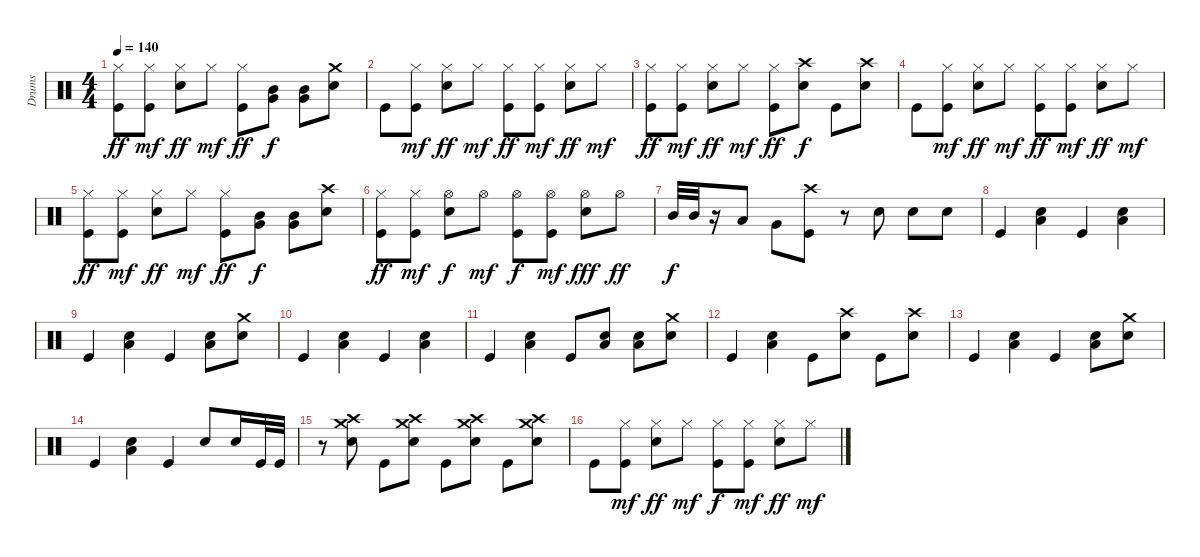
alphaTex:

\track ("Drums" "Drums") {instrument percussion}
\staff {score}
\articulation defaults
\ts (4 4)
\tempo 140
\clef neutral
\ks c
("Hi-Hat (closed)" "Kick (hit)").8{dy ff} ("Hi-Hat (closed)" "Kick (hit)").8{dy mf} ("Hi-Hat (closed)" "Snare (hit) 2").8{dy ff} "Hi-Hat (closed)".8{dy mf} ("Hi-Hat (closed)" "Kick (hit)").8{dy ff} ("Mid Tom (hit)" "Very Low Tom (hit)").8{dy f} ("Mid Tom (hit)" "Very Low Tom (hit)").8 ("Crash medium (hit)" "Snare (hit) 2").8 |
"Kick (hit)".8 ("Hi-Hat (closed)" "Kick (hit)").8{dy mf} ("Hi-Hat (closed)" "Snare (hit) 2").8{dy ff} "Hi-Hat (closed)".8{dy mf} ("Hi-Hat (closed)" "Kick (hit)").8{dy ff} ("Hi-Hat (closed)" "Kick (hit)").8{dy mf} ("Hi-Hat (closed)" "Snare (hit) 2").8{dy ff} "Hi-Hat (closed)".8{dy mf} |
("Hi-Hat (closed)" "Kick (hit)").8{dy ff} ("Hi-Hat (closed)" "Kick (hit)").8{dy mf} ("Hi-Hat (closed)" "Snare (hit) 2").8{dy ff} "Hi-Hat (closed)".8{dy mf} ("Hi-Hat (closed)" "Kick (hit)").8{dy ff} ("Crash high (hit)" "Snare (hit) 2").8{dy f} "Kick (hit)".8 ("Crash high (hit)" "Snare (hit) 2").8 |
"Kick (hit)".8 ("Hi-Hat (closed)" "Kick (hit)").8{dy mf} ("Hi-Hat (closed)" "Snare (hit) 2").8{dy ff} "Hi-Hat (closed)".8{dy mf} ("Hi-Hat (closed)" "Kick (hit)").8{dy ff} ("Hi-Hat (closed)" "Kick (hit)").8{dy mf} ("Hi-Hat (closed)" "Snare (hit) 2").8{dy ff} "Hi-Hat (closed)".8{dy mf} |
("Hi-Hat (closed)" "Kick (hit)").8{dy ff} ("Hi-Hat (closed)" "Kick (hit)").8{dy mf} ("Hi-Hat (closed)" "Snare (hit) 2").8{dy ff} "Hi-Hat (closed)".8{dy mf} ("Hi-Hat (closed)" "Kick (hit)").8{dy ff} ("Mid Tom (hit)" "Very Low Tom (hit)").8{dy f} ("Mid Tom (hit)" "Very Low Tom (hit)").8 ("Crash high (hit)" "Snare (hit) 2").8 |
("Hi-Hat (closed)" "Kick (hit)").8{dy ff} ("Hi-Hat (closed)" "Kick (hit)").8{dy mf} ("Hi-Hat (open)" "Snare (hit) 2").8{dy f} "Hi-Hat (open)".8{dy mf} ("Hi-Hat (open)" "Kick (hit)").8{dy f} ("Hi-Hat (open)" "Kick (hit)").8{dy mf} ("Hi-Hat (open)" "Snare (hit) 2").8{dy fff} "Hi-Hat (open)".8{dy ff} |
"Mid Tom (hit)".32{dy f} "Mid Tom (hit)".32 r.16 "Low Tom (hit)".8 "Very Low Tom (hit)".8 ("Crash high (hit)" "Kick (hit)").8 r.8 "Snare (hit) 2".8 "Snare (hit) 2".8 "Snare (hit) 2".8 |
"Kick (hit)".4 ("Snare (hit) 2" "Low Floor Tom (hit)").4 "Kick (hit)".4 ("Snare (hit) 2" "Low Floor Tom (hit)").4 |
"Kick (hit)".4 ("Snare (hit) 2" "Low Floor Tom (hit)").4 "Kick (hit)".4 ("Snare (hit) 2" "Low Floor Tom (hit)").8 ("Snare (hit) 2" "Crash medium (hit)").8 |
"Kick (hit)".4 ("Snare (hit) 2" "Low Floor Tom (hit)").4 "Kick (hit)".4 ("Snare (hit) 2" "Low Floor Tom (hit)").4 |
"Kick (hit)".4 ("Snare (hit) 2" "Low Floor Tom (hit)").4 "Kick (hit)".8 ("Snare (hit) 2" "Low Floor Tom (hit)").8 ("Snare (hit) 2" "Low Floor Tom (hit)").8 ("Snare (hit) 2" "Crash medium (hit)").8 |
"Kick (hit)".4 ("Snare (hit) 2" "Low Floor Tom (hit)").4 "Kick (hit)".8 ("Snare (hit) 2" "Crash high (hit)").8 "Kick (hit)".8 ("Snare (hit) 2" "Crash high (hit)").8 |
"Kick (hit)".4 ("Snare (hit) 2" "Low Floor Tom (hit)").4 "Kick (hit)".4 ("Snare (hit) 2" "Low Floor Tom (hit)").8 ("Snare (hit) 2" "Crash medium (hit)").8 |
"Kick (hit)".4 ("Snare (hit) 2" "Low Floor Tom (hit)").4 "Kick (hit)".4 "Snare (hit) 2".8 "Snare (hit) 2".16 "Kick (hit)".32 "Kick (hit)".32 |
r.8 ("Crash high (hit)" "Snare (hit) 2" "Crash medium (hit)").8 "Kick (hit)".8 ("Crash high (hit)" "Snare (hit) 2" "Crash medium (hit)").8 "Kick (hit)".8 ("Crash high (hit)" "Snare (hit) 2" "Crash medium (hit)").8 "Kick (hit)".8 ("Crash high (hit)" "Snare (hit) 2" "Crash medium (hit)").8 |
"Kick (hit)".8 ("Hi-Hat (closed)" "Kick (hit)").8{dy mf} ("Hi-Hat (closed)" "Snare (hit) 2").8{dy ff} "Hi-Hat (closed)".8{dy mf} ("Hi-Hat (closed)" "Kick (hit)").8{dy f} ("Hi-Hat (closed)" "Kick (hit)").8{dy mf} ("Hi-Hat (closed)" "Snare (hit) 2").8{dy ff} "Hi-Hat (closed)".8{dy mf}
